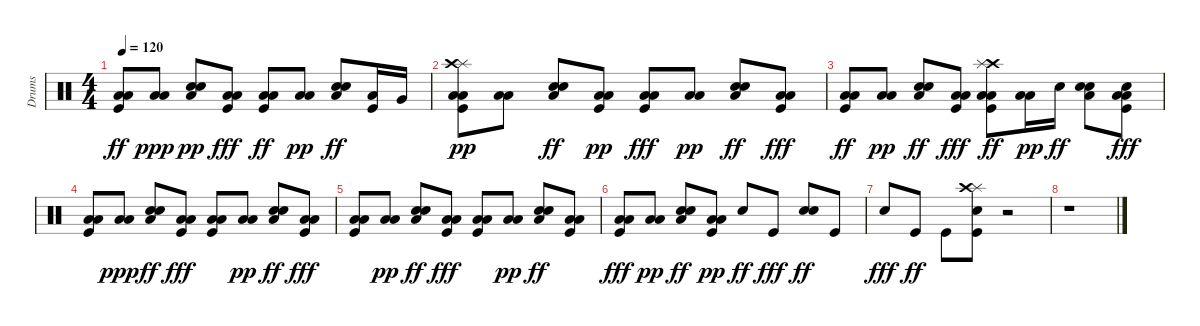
\track ("Drums" "Drums") {instrument percussion}
\staff {score}
\articulation defaults
\ts (4 4)
\tempo 120
\clef neutral
\ks c
("Low Tom (hit)" "Low Floor Tom (hit)" "Kick (hit)").8{dy ff} ("Low Floor Tom (hit)" "Low Tom (hit)").8{dy ppp} ("Hand Clap (hit)" "Snare (hit) 2" "Low Floor Tom (hit)").8{dy pp} ("Low Tom (hit)" "Low Floor Tom (hit)" "Kick (hit)").8{dy fff} ("Low Tom (hit)" "Low Floor Tom (hit)" "Kick (hit)").8{dy ff} ("Low Tom (hit)" "Low Floor Tom (hit)").8{dy pp} ("Low Floor Tom (hit)" "Hand Clap (hit)" "Snare (hit) 2").8{dy ff} ("Kick (hit)" "Low Tom (hit)").16 "Very Low Tom (hit)".16 |
("Kick (hit)" "Splash (hit)" "Low Tom (hit)" "Low Floor Tom (hit)" "Crash high (hit)").8{dy pp} ("Low Tom (hit)" "Low Floor Tom (hit)").8 ("Low Floor Tom (hit)" "Hand Clap (hit)" "Snare (hit) 2").8{dy ff} ("Kick (hit)" "Low Tom (hit)" "Low Floor Tom (hit)").8{dy pp} ("Low Tom (hit)" "Low Floor Tom (hit)" "Kick (hit)").8{dy fff} ("Low Tom (hit)" "Low Floor Tom (hit)").8{dy pp} ("Low Floor Tom (hit)" "Hand Clap (hit)" "Snare (hit) 2").8{dy ff} ("Low Tom (hit)" "Low Floor Tom (hit)" "Kick (hit)").8{dy fff} |
("Low Tom (hit)" "Low Floor Tom (hit)" "Kick (hit)").8{dy ff} ("Low Tom (hit)" "Low Floor Tom (hit)").8{dy pp} ("Low Floor Tom (hit)" "Snare (hit) 2" "Hand Clap (hit)").8{dy ff} ("Low Tom (hit)" "Low Floor Tom (hit)" "Kick (hit)").8{dy fff} ("Crash high (hit)" "Splash (hit)" "Low Tom (hit)" "Low Floor Tom (hit)" "Kick (hit)").8{dy ff} ("Low Floor Tom (hit)" "Low Tom (hit)").16{dy pp} "Snare (hit) 2".16{dy ff} ("Snare (hit) 2" "Low Floor Tom (hit)" "Hand Clap (hit)").8 ("Low Tom (hit)" "Low Floor Tom (hit)" "Kick (hit)" "Snare (hit) 2").8{dy fff} |
("Low Tom (hit)" "Low Floor Tom (hit)" "Kick (hit)").8 ("Low Floor Tom (hit)" "Low Tom (hit)").8{dy ppp} ("Hand Clap (hit)" "Low Floor Tom (hit)" "Snare (hit) 2").8{dy ff} ("Low Tom (hit)" "Low Floor Tom (hit)" "Kick (hit)").8{dy fff} ("Low Tom (hit)" "Low Floor Tom (hit)" "Kick (hit)").8 ("Low Tom (hit)" "Low Floor Tom (hit)").8{dy pp} ("Low Floor Tom (hit)" "Hand Clap (hit)" "Snare (hit) 2").8{dy ff} ("Low Tom (hit)" "Low Floor Tom (hit)" "Kick (hit)").8{dy fff} |
("Low Tom (hit)" "Low Floor Tom (hit)" "Kick (hit)").8 ("Low Tom (hit)" "Low Floor Tom (hit)").8{dy pp} ("Low Floor Tom (hit)" "Hand Clap (hit)" "Snare (hit) 2").8{dy ff} ("Low Tom (hit)" "Low Floor Tom (hit)" "Kick (hit)").8{dy fff} ("Low Tom (hit)" "Low Floor Tom (hit)" "Kick (hit)").8 ("Low Tom (hit)" "Low Floor Tom (hit)").8{dy pp} ("Low Floor Tom (hit)" "Hand Clap (hit)" "Snare (hit) 2").8{dy ff} ("Low Tom (hit)" "Low Floor Tom (hit)" "Kick (hit)").8 |
("Low Tom (hit)" "Low Floor Tom (hit)" "Kick (hit)").8{dy fff} ("Low Tom (hit)" "Low Floor Tom (hit)").8{dy pp} ("Snare (hit) 2" "Low Floor Tom (hit)" "Hand Clap (hit)").8{dy ff} ("Low Tom (hit)" "Low Floor Tom (hit)" "Kick (hit)").8{dy pp} "Snare (hit) 2".8{dy ff} "Kick (hit)".8{dy fff} ("Snare (hit) 2" "Hand Clap (hit)").8{dy ff} "Kick (hit)".8 |
"Snare (hit) 2".8{dy fff} "Kick (hit)".8{dy ff} "Kick (hit)".8 ("Splash (hit)" "Crash high (hit)" "Kick (hit)" "Snare (hit) 2").8 r.2 |
r.1
